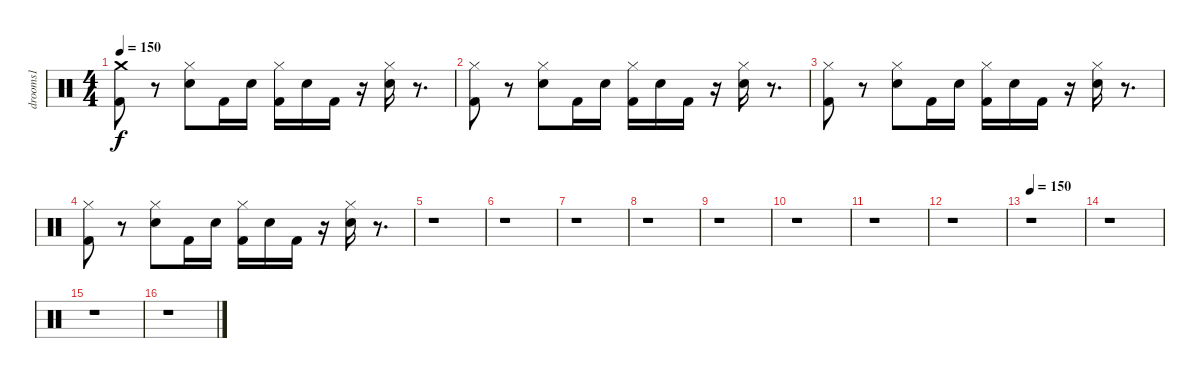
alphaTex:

\track ("drooms1" "drooms1") {instrument percussion}
\staff {score}
\articulation defaults
\ts (4 4)
\tempo 150
\clef neutral
\ks c
("Crash medium (hit)" "Kick (hit) 2").8{dy f} r.8 ("Hi-Hat (closed)" "Electric Snare (hit)").8 "Kick (hit) 2".16 "Electric Snare (hit)".16 ("Hi-Hat (closed)" "Kick (hit) 2").16 "Electric Snare (hit)".16 "Kick (hit) 2".16 r.16 ("Hi-Hat (closed)" "Electric Snare (hit)").16 r.8{d} |
("Hi-Hat (closed)" "Kick (hit) 2").8 r.8 ("Hi-Hat (closed)" "Electric Snare (hit)").8 "Kick (hit) 2".16 "Electric Snare (hit)".16 ("Hi-Hat (closed)" "Kick (hit) 2").16 "Electric Snare (hit)".16 "Kick (hit) 2".16 r.16 ("Hi-Hat (closed)" "Electric Snare (hit)").16 r.8{d} |
("Hi-Hat (closed)" "Kick (hit) 2").8 r.8 ("Hi-Hat (closed)" "Electric Snare (hit)").8 "Kick (hit) 2".16 "Electric Snare (hit)".16 ("Hi-Hat (closed)" "Kick (hit) 2").16 "Electric Snare (hit)".16 "Kick (hit) 2".16 r.16 ("Hi-Hat (closed)" "Electric Snare (hit)").16 r.8{d} |
("Hi-Hat (closed)" "Kick (hit) 2").8 r.8 ("Hi-Hat (closed)" "Electric Snare (hit)").8 "Kick (hit) 2".16 "Electric Snare (hit)".16 ("Hi-Hat (closed)" "Kick (hit) 2").16 "Electric Snare (hit)".16 "Kick (hit) 2".16 r.16 ("Hi-Hat (closed)" "Electric Snare (hit)").16 r.8{d} |
r.1 |
r.1 |
r.1 |
r.1 |
r.1 |
r.1 |
r.1 |
r.1 |
\tempo 150
r.1 |
r.1 |
r.1 |
r.1
